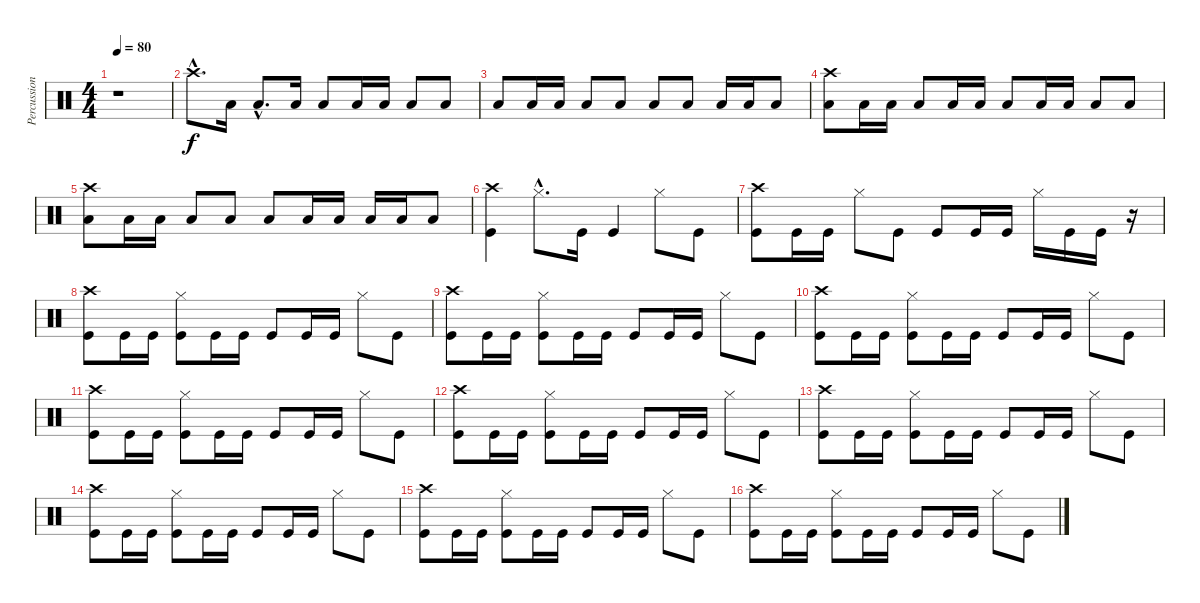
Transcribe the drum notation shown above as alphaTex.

\track ("Percussion" "Percussion") {instrument percussion}
\staff {score}
\articulation defaults
\ts (4 4)
\tempo 80
\clef neutral
\ks c
r.1{dy f} |
"Crash high (hit)"{hac}.8{d} "Low Tom (hit)".16 "Low Tom (hit)"{hac}.8{d} "Low Tom (hit)".16 "Low Tom (hit)".8 "Low Tom (hit)".16 "Low Tom (hit)".16 "Low Tom (hit)".8 "Low Tom (hit)".8 |
"Low Tom (hit)".8 "Low Tom (hit)".16 "Low Tom (hit)".16 "Low Tom (hit)".8 "Low Tom (hit)".8 "Low Tom (hit)".8 "Low Tom (hit)".8 "Low Tom (hit)".16 "Low Tom (hit)".16 "Low Tom (hit)".8 |
("Crash high (hit)" "Low Tom (hit)").8 "Low Tom (hit)".16 "Low Tom (hit)".16 "Low Tom (hit)".8 "Low Tom (hit)".16 "Low Tom (hit)".16 "Low Tom (hit)".8 "Low Tom (hit)".16 "Low Tom (hit)".16 "Low Tom (hit)".8 "Low Tom (hit)".8 |
("Crash high (hit)" "Low Tom (hit)").8 "Low Tom (hit)".16 "Low Tom (hit)".16 "Low Tom (hit)".8 "Low Tom (hit)".8 "Low Tom (hit)".8 "Low Tom (hit)".16 "Low Tom (hit)".16 "Low Tom (hit)".16 "Low Tom (hit)".16 "Low Tom (hit)".8 |
("Crash high (hit)" "Kick (hit)").4 "Hi-Hat (closed)"{hac}.8{d} "Kick (hit)".16 "Kick (hit)".4 "Hi-Hat (closed)".8 "Kick (hit)".8 |
("Crash high (hit)" "Kick (hit)").8 "Kick (hit)".16 "Kick (hit)".16 "Hi-Hat (closed)".8 "Kick (hit)".8 "Kick (hit)".8 "Kick (hit)".16 "Kick (hit)".16 "Hi-Hat (closed)".16 "Kick (hit)".16 "Kick (hit)".16 r.16 |
("Crash high (hit)" "Kick (hit)").8 "Kick (hit)".16 "Kick (hit)".16 ("Hi-Hat (closed)" "Kick (hit)").8 "Kick (hit)".16 "Kick (hit)".16 "Kick (hit)".8 "Kick (hit)".16 "Kick (hit)".16 "Hi-Hat (closed)".8 "Kick (hit)".8 |
("Crash high (hit)" "Kick (hit)").8 "Kick (hit)".16 "Kick (hit)".16 ("Hi-Hat (closed)" "Kick (hit)").8 "Kick (hit)".16 "Kick (hit)".16 "Kick (hit)".8 "Kick (hit)".16 "Kick (hit)".16 "Hi-Hat (closed)".8 "Kick (hit)".8 |
("Crash high (hit)" "Kick (hit)").8 "Kick (hit)".16 "Kick (hit)".16 ("Hi-Hat (closed)" "Kick (hit)").8 "Kick (hit)".16 "Kick (hit)".16 "Kick (hit)".8 "Kick (hit)".16 "Kick (hit)".16 "Hi-Hat (closed)".8 "Kick (hit)".8 |
("Crash high (hit)" "Kick (hit)").8 "Kick (hit)".16 "Kick (hit)".16 ("Hi-Hat (closed)" "Kick (hit)").8 "Kick (hit)".16 "Kick (hit)".16 "Kick (hit)".8 "Kick (hit)".16 "Kick (hit)".16 "Hi-Hat (closed)".8 "Kick (hit)".8 |
("Crash high (hit)" "Kick (hit)").8 "Kick (hit)".16 "Kick (hit)".16 ("Hi-Hat (closed)" "Kick (hit)").8 "Kick (hit)".16 "Kick (hit)".16 "Kick (hit)".8 "Kick (hit)".16 "Kick (hit)".16 "Hi-Hat (closed)".8 "Kick (hit)".8 |
("Crash high (hit)" "Kick (hit)").8 "Kick (hit)".16 "Kick (hit)".16 ("Hi-Hat (closed)" "Kick (hit)").8 "Kick (hit)".16 "Kick (hit)".16 "Kick (hit)".8 "Kick (hit)".16 "Kick (hit)".16 "Hi-Hat (closed)".8 "Kick (hit)".8 |
("Crash high (hit)" "Kick (hit)").8 "Kick (hit)".16 "Kick (hit)".16 ("Hi-Hat (closed)" "Kick (hit)").8 "Kick (hit)".16 "Kick (hit)".16 "Kick (hit)".8 "Kick (hit)".16 "Kick (hit)".16 "Hi-Hat (closed)".8 "Kick (hit)".8 |
("Crash high (hit)" "Kick (hit)").8 "Kick (hit)".16 "Kick (hit)".16 ("Hi-Hat (closed)" "Kick (hit)").8 "Kick (hit)".16 "Kick (hit)".16 "Kick (hit)".8 "Kick (hit)".16 "Kick (hit)".16 "Hi-Hat (closed)".8 "Kick (hit)".8 |
("Crash high (hit)" "Kick (hit)").8 "Kick (hit)".16 "Kick (hit)".16 ("Hi-Hat (closed)" "Kick (hit)").8 "Kick (hit)".16 "Kick (hit)".16 "Kick (hit)".8 "Kick (hit)".16 "Kick (hit)".16 "Hi-Hat (closed)".8 "Kick (hit)".8
